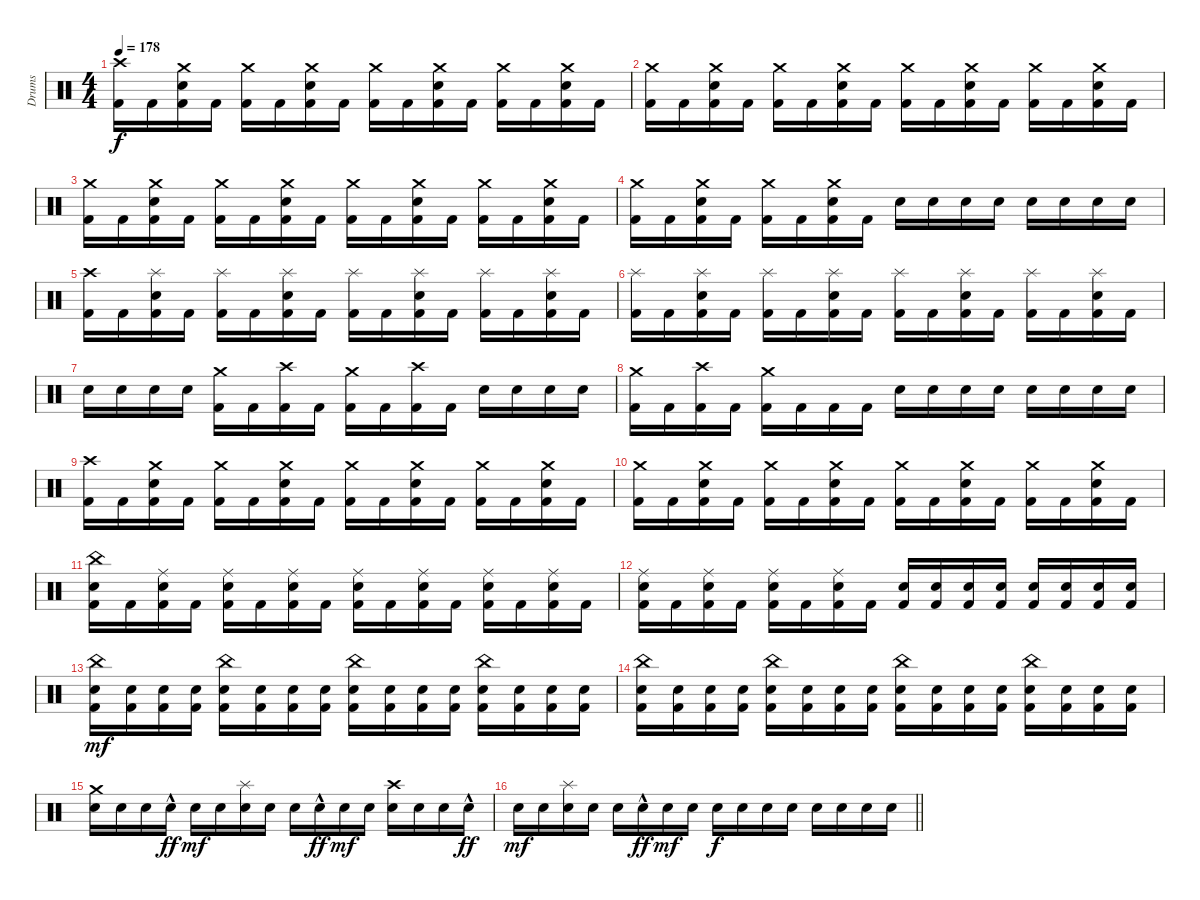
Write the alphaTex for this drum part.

\track ("Drums" "Drums") {instrument percussion}
\staff {score}
\articulation defaults
\ts (4 4)
\tempo 178
\clef neutral
\ks c
("Crash high (hit)" "Kick (hit) 2").16{dy f} "Kick (hit) 2".16 ("Crash medium (hit)" "Electric Snare (hit)" "Kick (hit) 2").16 "Kick (hit) 2".16 ("Crash medium (hit)" "Kick (hit) 2").16 "Kick (hit) 2".16 ("Crash medium (hit)" "Electric Snare (hit)" "Kick (hit) 2").16 "Kick (hit) 2".16 ("Crash medium (hit)" "Kick (hit) 2").16 "Kick (hit) 2".16 ("Crash medium (hit)" "Electric Snare (hit)" "Kick (hit) 2").16 "Kick (hit) 2".16 ("Crash medium (hit)" "Kick (hit) 2").16 "Kick (hit) 2".16 ("Crash medium (hit)" "Electric Snare (hit)" "Kick (hit) 2").16 "Kick (hit) 2".16 |
("Crash medium (hit)" "Kick (hit) 2").16 "Kick (hit) 2".16 ("Crash medium (hit)" "Electric Snare (hit)" "Kick (hit) 2").16 "Kick (hit) 2".16 ("Crash medium (hit)" "Kick (hit) 2").16 "Kick (hit) 2".16 ("Crash medium (hit)" "Electric Snare (hit)" "Kick (hit) 2").16 "Kick (hit) 2".16 ("Crash medium (hit)" "Kick (hit) 2").16 "Kick (hit) 2".16 ("Crash medium (hit)" "Electric Snare (hit)" "Kick (hit) 2").16 "Kick (hit) 2".16 ("Crash medium (hit)" "Kick (hit) 2").16 "Kick (hit) 2".16 ("Crash medium (hit)" "Electric Snare (hit)" "Kick (hit) 2").16 "Kick (hit) 2".16 |
("Crash medium (hit)" "Kick (hit) 2").16 "Kick (hit) 2".16 ("Crash medium (hit)" "Electric Snare (hit)" "Kick (hit) 2").16 "Kick (hit) 2".16 ("Crash medium (hit)" "Kick (hit) 2").16 "Kick (hit) 2".16 ("Crash medium (hit)" "Electric Snare (hit)" "Kick (hit) 2").16 "Kick (hit) 2".16 ("Crash medium (hit)" "Kick (hit) 2").16 "Kick (hit) 2".16 ("Crash medium (hit)" "Electric Snare (hit)" "Kick (hit) 2").16 "Kick (hit) 2".16 ("Crash medium (hit)" "Kick (hit) 2").16 "Kick (hit) 2".16 ("Crash medium (hit)" "Electric Snare (hit)" "Kick (hit) 2").16 "Kick (hit) 2".16 |
("Crash medium (hit)" "Kick (hit) 2").16 "Kick (hit) 2".16 ("Crash medium (hit)" "Electric Snare (hit)" "Kick (hit) 2").16 "Kick (hit) 2".16 ("Crash medium (hit)" "Kick (hit) 2").16 "Kick (hit) 2".16 ("Crash medium (hit)" "Electric Snare (hit)" "Kick (hit) 2").16 "Kick (hit) 2".16 "Electric Snare (hit)".16{volume 4} "Electric Snare (hit)".16{volume 13} "Electric Snare (hit)".16 "Electric Snare (hit)".16 "Electric Snare (hit)".16 "Electric Snare (hit)".16 "Electric Snare (hit)".16 "Electric Snare (hit)".16 |
("Crash high (hit)" "Kick (hit) 2").16 "Kick (hit) 2".16 ("Splash (hit)" "Electric Snare (hit)" "Kick (hit) 2").16 "Kick (hit) 2".16 ("Splash (hit)" "Kick (hit) 2").16 "Kick (hit) 2".16 ("Splash (hit)" "Electric Snare (hit)" "Kick (hit) 2").16 "Kick (hit) 2".16 ("Splash (hit)" "Kick (hit) 2").16 "Kick (hit) 2".16 ("Splash (hit)" "Electric Snare (hit)" "Kick (hit) 2").16 "Kick (hit) 2".16 ("Splash (hit)" "Kick (hit) 2").16 "Kick (hit) 2".16 ("Splash (hit)" "Electric Snare (hit)" "Kick (hit) 2").16 "Kick (hit) 2".16 |
("Splash (hit)" "Kick (hit) 2").16 "Kick (hit) 2".16 ("Splash (hit)" "Electric Snare (hit)" "Kick (hit) 2").16 "Kick (hit) 2".16 ("Splash (hit)" "Kick (hit) 2").16 "Kick (hit) 2".16 ("Splash (hit)" "Electric Snare (hit)" "Kick (hit) 2").16 "Kick (hit) 2".16 ("Splash (hit)" "Kick (hit) 2").16 "Kick (hit) 2".16 ("Splash (hit)" "Electric Snare (hit)" "Kick (hit) 2").16 "Kick (hit) 2".16 ("Splash (hit)" "Kick (hit) 2").16 "Kick (hit) 2".16 ("Splash (hit)" "Electric Snare (hit)" "Kick (hit) 2").16 "Kick (hit) 2".16 |
"Electric Snare (hit)".16 "Electric Snare (hit)".16 "Electric Snare (hit)".16 "Electric Snare (hit)".16 ("Crash medium (hit)" "Kick (hit) 2").16 "Kick (hit) 2".16 ("Crash high (hit)" "Kick (hit) 2").16 "Kick (hit) 2".16 ("Crash medium (hit)" "Kick (hit) 2").16 "Kick (hit) 2".16 ("Crash high (hit)" "Kick (hit) 2").16 "Kick (hit) 2".16 "Electric Snare (hit)".16 "Electric Snare (hit)".16 "Electric Snare (hit)".16 "Electric Snare (hit)".16 |
("Crash medium (hit)" "Kick (hit) 2").16 "Kick (hit) 2".16 ("Crash high (hit)" "Kick (hit) 2").16 "Kick (hit) 2".16 ("Crash medium (hit)" "Kick (hit) 2").16 "Kick (hit) 2".16 "Kick (hit) 2".16 "Kick (hit) 2".16 "Electric Snare (hit)".16 "Electric Snare (hit)".16 "Electric Snare (hit)".16 "Electric Snare (hit)".16 "Electric Snare (hit)".16 "Electric Snare (hit)".16 "Electric Snare (hit)".16 "Electric Snare (hit)".16 |
("Crash high (hit)" "Kick (hit) 2").16 "Kick (hit) 2".16 ("Crash medium (hit)" "Electric Snare (hit)" "Kick (hit) 2").16 "Kick (hit) 2".16 ("Crash medium (hit)" "Kick (hit) 2").16 "Kick (hit) 2".16 ("Crash medium (hit)" "Electric Snare (hit)" "Kick (hit) 2").16 "Kick (hit) 2".16 ("Crash medium (hit)" "Kick (hit) 2").16 "Kick (hit) 2".16 ("Crash medium (hit)" "Electric Snare (hit)" "Kick (hit) 2").16 "Kick (hit) 2".16 ("Crash medium (hit)" "Kick (hit) 2").16 "Kick (hit) 2".16 ("Crash medium (hit)" "Electric Snare (hit)" "Kick (hit) 2").16 "Kick (hit) 2".16 |
("Crash medium (hit)" "Kick (hit) 2").16 "Kick (hit) 2".16 ("Crash medium (hit)" "Electric Snare (hit)" "Kick (hit) 2").16 "Kick (hit) 2".16 ("Crash medium (hit)" "Kick (hit) 2").16 "Kick (hit) 2".16 ("Crash medium (hit)" "Electric Snare (hit)" "Kick (hit) 2").16 "Kick (hit) 2".16 ("Crash medium (hit)" "Kick (hit) 2").16 "Kick (hit) 2".16 ("Crash medium (hit)" "Electric Snare (hit)" "Kick (hit) 2").16 "Kick (hit) 2".16 ("Crash medium (hit)" "Kick (hit) 2").16 "Kick (hit) 2".16 ("Crash medium (hit)" "Electric Snare (hit)" "Kick (hit) 2").16 "Kick (hit) 2".16 |
("China (hit)" "Electric Snare (hit)" "Kick (hit) 2").16 "Kick (hit) 2".16 ("Ride (middle)" "Electric Snare (hit)" "Kick (hit) 2").16 "Kick (hit) 2".16 ("Ride (middle)" "Electric Snare (hit)" "Kick (hit) 2").16 "Kick (hit) 2".16 ("Ride (middle)" "Electric Snare (hit)" "Kick (hit) 2").16 "Kick (hit) 2".16 ("Ride (middle)" "Electric Snare (hit)" "Kick (hit) 2").16 "Kick (hit) 2".16 ("Ride (middle)" "Electric Snare (hit)" "Kick (hit) 2").16 "Kick (hit) 2".16 ("Ride (middle)" "Electric Snare (hit)" "Kick (hit) 2").16 "Kick (hit) 2".16 ("Ride (middle)" "Electric Snare (hit)" "Kick (hit) 2").16 "Kick (hit) 2".16 |
("Ride (middle)" "Electric Snare (hit)" "Kick (hit) 2").16 "Kick (hit) 2".16 ("Ride (middle)" "Electric Snare (hit)" "Kick (hit) 2").16 "Kick (hit) 2".16 ("Ride (middle)" "Electric Snare (hit)" "Kick (hit) 2").16 "Kick (hit) 2".16 ("Ride (middle)" "Electric Snare (hit)" "Kick (hit) 2").16 "Kick (hit) 2".16 ("Electric Snare (hit)" "Kick (hit) 2").16 ("Electric Snare (hit)" "Kick (hit) 2").16 ("Electric Snare (hit)" "Kick (hit) 2").16 ("Electric Snare (hit)" "Kick (hit) 2").16 ("Electric Snare (hit)" "Kick (hit) 2").16 ("Electric Snare (hit)" "Kick (hit) 2").16 ("Electric Snare (hit)" "Kick (hit) 2").16 ("Electric Snare (hit)" "Kick (hit) 2").16 |
("China (hit)" "Electric Snare (hit)" "Kick (hit) 2").16{dy mf} ("Electric Snare (hit)" "Kick (hit) 2").16 ("Electric Snare (hit)" "Kick (hit) 2").16 ("Electric Snare (hit)" "Kick (hit) 2").16 ("China (hit)" "Electric Snare (hit)" "Kick (hit) 2").16 ("Electric Snare (hit)" "Kick (hit) 2").16 ("Electric Snare (hit)" "Kick (hit) 2").16 ("Electric Snare (hit)" "Kick (hit) 2").16 ("China (hit)" "Electric Snare (hit)" "Kick (hit) 2").16 ("Electric Snare (hit)" "Kick (hit) 2").16 ("Electric Snare (hit)" "Kick (hit) 2").16 ("Electric Snare (hit)" "Kick (hit) 2").16 ("China (hit)" "Electric Snare (hit)" "Kick (hit) 2").16 ("Electric Snare (hit)" "Kick (hit) 2").16 ("Electric Snare (hit)" "Kick (hit) 2").16 ("Electric Snare (hit)" "Kick (hit) 2").16 |
("China (hit)" "Electric Snare (hit)" "Kick (hit) 2").16 ("Electric Snare (hit)" "Kick (hit) 2").16 ("Electric Snare (hit)" "Kick (hit) 2").16 ("Electric Snare (hit)" "Kick (hit) 2").16 ("China (hit)" "Electric Snare (hit)" "Kick (hit) 2").16 ("Electric Snare (hit)" "Kick (hit) 2").16 ("Electric Snare (hit)" "Kick (hit) 2").16 ("Electric Snare (hit)" "Kick (hit) 2").16 ("China (hit)" "Electric Snare (hit)" "Kick (hit) 2").16 ("Electric Snare (hit)" "Kick (hit) 2").16 ("Electric Snare (hit)" "Kick (hit) 2").16 ("Electric Snare (hit)" "Kick (hit) 2").16 ("China (hit)" "Electric Snare (hit)" "Kick (hit) 2").16 ("Electric Snare (hit)" "Kick (hit) 2").16 ("Electric Snare (hit)" "Kick (hit) 2").16 ("Electric Snare (hit)" "Kick (hit) 2").16 |
("Crash medium (hit)" "Electric Snare (hit)").16 "Electric Snare (hit)".16 "Electric Snare (hit)".16 "Electric Snare (hit)"{hac}.16{dy ff} "Electric Snare (hit)".16{dy mf} "Electric Snare (hit)".16 ("Splash (hit)" "Electric Snare (hit)").16 "Electric Snare (hit)".16 "Electric Snare (hit)".16 "Electric Snare (hit)"{hac}.16{dy ff} "Electric Snare (hit)".16{dy mf} "Electric Snare (hit)".16 ("Crash high (hit)" "Electric Snare (hit)").16 "Electric Snare (hit)".16 "Electric Snare (hit)".16 "Electric Snare (hit)"{hac}.16{dy ff} |
\barLineRight lightlight "Electric Snare (hit)".16{dy mf} "Electric Snare (hit)".16
("Splash (hit)" "Electric Snare (hit)").16 "Electric Snare (hit)".16 "Electric Snare (hit)".16 "Electric Snare (hit)"{hac}.16{dy ff} "Electric Snare (hit)".16{dy mf} "Electric Snare (hit)".16 "Electric Snare (hit)".16{dy f} "Electric Snare (hit)".16 "Electric Snare (hit)".16 "Electric Snare (hit)".16 "Electric Snare (hit)".16 "Electric Snare (hit)".16 "Electric Snare (hit)".16 "Electric Snare (hit)".16
